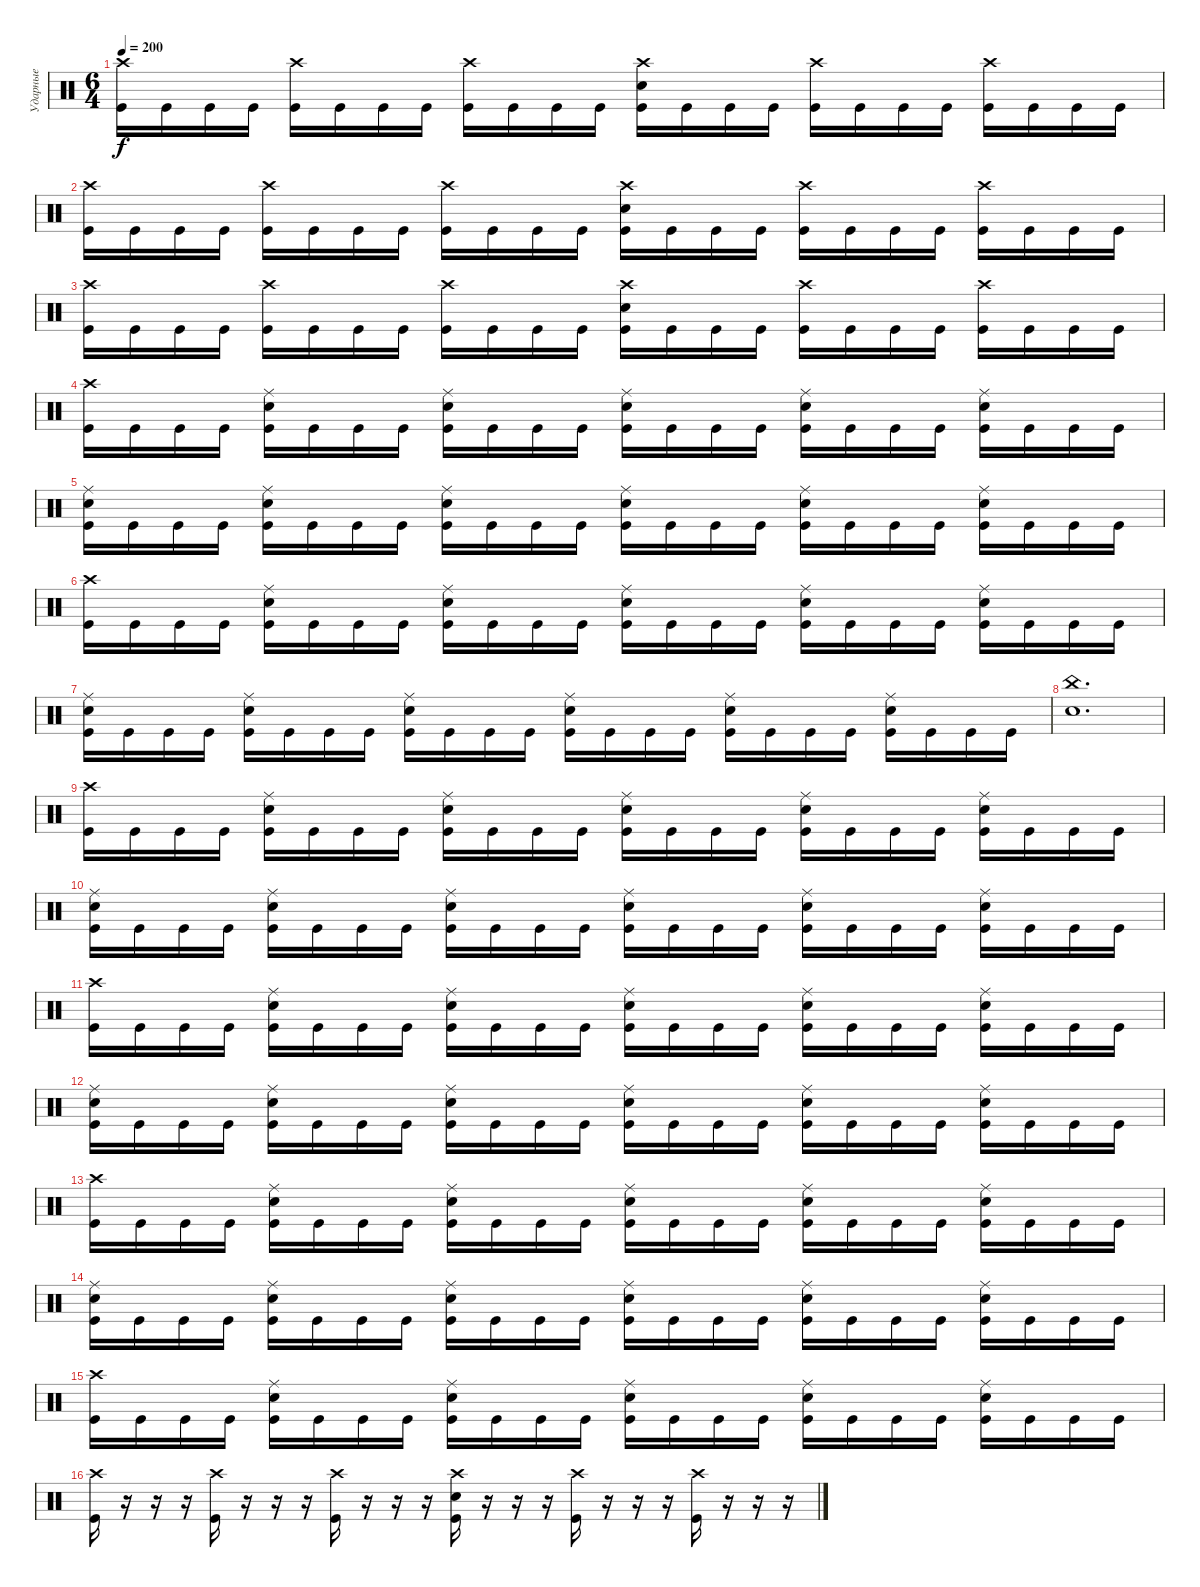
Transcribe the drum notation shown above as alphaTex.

\track ("Ударные" "Ударные") {instrument percussion}
\staff {score}
\articulation defaults
\ts (6 4)
\tempo 200
\clef neutral
\ks c
("Crash high (hit)" "Kick (hit)").16{dy f} "Kick (hit)".16 "Kick (hit)".16 "Kick (hit)".16 ("Crash high (hit)" "Kick (hit)").16 "Kick (hit)".16 "Kick (hit)".16 "Kick (hit)".16 ("Crash high (hit)" "Kick (hit)").16 "Kick (hit)".16 "Kick (hit)".16 "Kick (hit)".16 ("Crash high (hit)" "Snare (hit) 2" "Kick (hit)").16 "Kick (hit)".16 "Kick (hit)".16 "Kick (hit)".16 ("Crash high (hit)" "Kick (hit)").16 "Kick (hit)".16 "Kick (hit)".16 "Kick (hit)".16 ("Crash high (hit)" "Kick (hit)").16 "Kick (hit)".16 "Kick (hit)".16 "Kick (hit)".16 |
("Crash high (hit)" "Kick (hit)").16 "Kick (hit)".16 "Kick (hit)".16 "Kick (hit)".16 ("Crash high (hit)" "Kick (hit)").16 "Kick (hit)".16 "Kick (hit)".16 "Kick (hit)".16 ("Crash high (hit)" "Kick (hit)").16 "Kick (hit)".16 "Kick (hit)".16 "Kick (hit)".16 ("Crash high (hit)" "Snare (hit) 2" "Kick (hit)").16 "Kick (hit)".16 "Kick (hit)".16 "Kick (hit)".16 ("Crash high (hit)" "Kick (hit)").16 "Kick (hit)".16 "Kick (hit)".16 "Kick (hit)".16 ("Crash high (hit)" "Kick (hit)").16 "Kick (hit)".16 "Kick (hit)".16 "Kick (hit)".16 |
("Crash high (hit)" "Kick (hit)").16 "Kick (hit)".16 "Kick (hit)".16 "Kick (hit)".16 ("Crash high (hit)" "Kick (hit)").16 "Kick (hit)".16 "Kick (hit)".16 "Kick (hit)".16 ("Crash high (hit)" "Kick (hit)").16 "Kick (hit)".16 "Kick (hit)".16 "Kick (hit)".16 ("Crash high (hit)" "Snare (hit) 2" "Kick (hit)").16 "Kick (hit)".16 "Kick (hit)".16 "Kick (hit)".16 ("Crash high (hit)" "Kick (hit)").16 "Kick (hit)".16 "Kick (hit)".16 "Kick (hit)".16 ("Crash high (hit)" "Kick (hit)").16 "Kick (hit)".16 "Kick (hit)".16 "Kick (hit)".16 |
("Crash high (hit)" "Kick (hit)").16 "Kick (hit)".16 "Kick (hit)".16 "Kick (hit)".16 ("Ride (middle)" "Snare (hit) 2" "Kick (hit)").16 "Kick (hit)".16 "Kick (hit)".16 "Kick (hit)".16 ("Ride (middle)" "Snare (hit) 2" "Kick (hit)").16 "Kick (hit)".16 "Kick (hit)".16 "Kick (hit)".16 ("Ride (middle)" "Snare (hit) 2" "Kick (hit)").16 "Kick (hit)".16 "Kick (hit)".16 "Kick (hit)".16 ("Ride (middle)" "Snare (hit) 2" "Kick (hit)").16 "Kick (hit)".16 "Kick (hit)".16 "Kick (hit)".16 ("Ride (middle)" "Snare (hit) 2" "Kick (hit)").16 "Kick (hit)".16 "Kick (hit)".16 "Kick (hit)".16 |
("Ride (middle)" "Snare (hit) 2" "Kick (hit)").16 "Kick (hit)".16 "Kick (hit)".16 "Kick (hit)".16 ("Ride (middle)" "Snare (hit) 2" "Kick (hit)").16 "Kick (hit)".16 "Kick (hit)".16 "Kick (hit)".16 ("Ride (middle)" "Snare (hit) 2" "Kick (hit)").16 "Kick (hit)".16 "Kick (hit)".16 "Kick (hit)".16 ("Ride (middle)" "Snare (hit) 2" "Kick (hit)").16 "Kick (hit)".16 "Kick (hit)".16 "Kick (hit)".16 ("Ride (middle)" "Snare (hit) 2" "Kick (hit)").16 "Kick (hit)".16 "Kick (hit)".16 "Kick (hit)".16 ("Ride (middle)" "Snare (hit) 2" "Kick (hit)").16 "Kick (hit)".16 "Kick (hit)".16 "Kick (hit)".16 |
("Crash high (hit)" "Kick (hit)").16 "Kick (hit)".16 "Kick (hit)".16 "Kick (hit)".16 ("Ride (middle)" "Snare (hit) 2" "Kick (hit)").16 "Kick (hit)".16 "Kick (hit)".16 "Kick (hit)".16 ("Ride (middle)" "Snare (hit) 2" "Kick (hit)").16 "Kick (hit)".16 "Kick (hit)".16 "Kick (hit)".16 ("Ride (middle)" "Snare (hit) 2" "Kick (hit)").16 "Kick (hit)".16 "Kick (hit)".16 "Kick (hit)".16 ("Ride (middle)" "Snare (hit) 2" "Kick (hit)").16 "Kick (hit)".16 "Kick (hit)".16 "Kick (hit)".16 ("Ride (middle)" "Snare (hit) 2" "Kick (hit)").16 "Kick (hit)".16 "Kick (hit)".16 "Kick (hit)".16 |
("Ride (middle)" "Snare (hit) 2" "Kick (hit)").16 "Kick (hit)".16 "Kick (hit)".16 "Kick (hit)".16 ("Ride (middle)" "Snare (hit) 2" "Kick (hit)").16 "Kick (hit)".16 "Kick (hit)".16 "Kick (hit)".16 ("Ride (middle)" "Snare (hit) 2" "Kick (hit)").16 "Kick (hit)".16 "Kick (hit)".16 "Kick (hit)".16 ("Ride (middle)" "Snare (hit) 2" "Kick (hit)").16 "Kick (hit)".16 "Kick (hit)".16 "Kick (hit)".16 ("Ride (middle)" "Snare (hit) 2" "Kick (hit)").16 "Kick (hit)".16 "Kick (hit)".16 "Kick (hit)".16 ("Ride (middle)" "Snare (hit) 2" "Kick (hit)").16 "Kick (hit)".16 "Kick (hit)".16 "Kick (hit)".16 |
("China (hit)" "Snare (hit) 2").1{d} |
("Crash high (hit)" "Kick (hit)").16 "Kick (hit)".16 "Kick (hit)".16 "Kick (hit)".16 ("Ride (middle)" "Snare (hit) 2" "Kick (hit)").16 "Kick (hit)".16 "Kick (hit)".16 "Kick (hit)".16 ("Ride (middle)" "Snare (hit) 2" "Kick (hit)").16 "Kick (hit)".16 "Kick (hit)".16 "Kick (hit)".16 ("Ride (middle)" "Snare (hit) 2" "Kick (hit)").16 "Kick (hit)".16 "Kick (hit)".16 "Kick (hit)".16 ("Ride (middle)" "Snare (hit) 2" "Kick (hit)").16 "Kick (hit)".16 "Kick (hit)".16 "Kick (hit)".16 ("Ride (middle)" "Snare (hit) 2" "Kick (hit)").16 "Kick (hit)".16 "Kick (hit)".16 "Kick (hit)".16 |
("Ride (middle)" "Snare (hit) 2" "Kick (hit)").16 "Kick (hit)".16 "Kick (hit)".16 "Kick (hit)".16 ("Ride (middle)" "Snare (hit) 2" "Kick (hit)").16 "Kick (hit)".16 "Kick (hit)".16 "Kick (hit)".16 ("Ride (middle)" "Snare (hit) 2" "Kick (hit)").16 "Kick (hit)".16 "Kick (hit)".16 "Kick (hit)".16 ("Ride (middle)" "Snare (hit) 2" "Kick (hit)").16 "Kick (hit)".16 "Kick (hit)".16 "Kick (hit)".16 ("Ride (middle)" "Snare (hit) 2" "Kick (hit)").16 "Kick (hit)".16 "Kick (hit)".16 "Kick (hit)".16 ("Ride (middle)" "Snare (hit) 2" "Kick (hit)").16 "Kick (hit)".16 "Kick (hit)".16 "Kick (hit)".16 |
("Crash high (hit)" "Kick (hit)").16 "Kick (hit)".16 "Kick (hit)".16 "Kick (hit)".16 ("Ride (middle)" "Snare (hit) 2" "Kick (hit)").16 "Kick (hit)".16 "Kick (hit)".16 "Kick (hit)".16 ("Ride (middle)" "Snare (hit) 2" "Kick (hit)").16 "Kick (hit)".16 "Kick (hit)".16 "Kick (hit)".16 ("Ride (middle)" "Snare (hit) 2" "Kick (hit)").16 "Kick (hit)".16 "Kick (hit)".16 "Kick (hit)".16 ("Ride (middle)" "Snare (hit) 2" "Kick (hit)").16 "Kick (hit)".16 "Kick (hit)".16 "Kick (hit)".16 ("Ride (middle)" "Snare (hit) 2" "Kick (hit)").16 "Kick (hit)".16 "Kick (hit)".16 "Kick (hit)".16 |
("Ride (middle)" "Snare (hit) 2" "Kick (hit)").16 "Kick (hit)".16 "Kick (hit)".16 "Kick (hit)".16 ("Ride (middle)" "Snare (hit) 2" "Kick (hit)").16 "Kick (hit)".16 "Kick (hit)".16 "Kick (hit)".16 ("Ride (middle)" "Snare (hit) 2" "Kick (hit)").16 "Kick (hit)".16 "Kick (hit)".16 "Kick (hit)".16 ("Ride (middle)" "Snare (hit) 2" "Kick (hit)").16 "Kick (hit)".16 "Kick (hit)".16 "Kick (hit)".16 ("Ride (middle)" "Snare (hit) 2" "Kick (hit)").16 "Kick (hit)".16 "Kick (hit)".16 "Kick (hit)".16 ("Ride (middle)" "Snare (hit) 2" "Kick (hit)").16 "Kick (hit)".16 "Kick (hit)".16 "Kick (hit)".16 |
("Crash high (hit)" "Kick (hit)").16 "Kick (hit)".16 "Kick (hit)".16 "Kick (hit)".16 ("Ride (middle)" "Snare (hit) 2" "Kick (hit)").16 "Kick (hit)".16 "Kick (hit)".16 "Kick (hit)".16 ("Ride (middle)" "Snare (hit) 2" "Kick (hit)").16 "Kick (hit)".16 "Kick (hit)".16 "Kick (hit)".16 ("Ride (middle)" "Snare (hit) 2" "Kick (hit)").16 "Kick (hit)".16 "Kick (hit)".16 "Kick (hit)".16 ("Ride (middle)" "Snare (hit) 2" "Kick (hit)").16 "Kick (hit)".16 "Kick (hit)".16 "Kick (hit)".16 ("Ride (middle)" "Snare (hit) 2" "Kick (hit)").16 "Kick (hit)".16 "Kick (hit)".16 "Kick (hit)".16 |
("Ride (middle)" "Snare (hit) 2" "Kick (hit)").16 "Kick (hit)".16 "Kick (hit)".16 "Kick (hit)".16 ("Ride (middle)" "Snare (hit) 2" "Kick (hit)").16 "Kick (hit)".16 "Kick (hit)".16 "Kick (hit)".16 ("Ride (middle)" "Snare (hit) 2" "Kick (hit)").16 "Kick (hit)".16 "Kick (hit)".16 "Kick (hit)".16 ("Ride (middle)" "Snare (hit) 2" "Kick (hit)").16 "Kick (hit)".16 "Kick (hit)".16 "Kick (hit)".16 ("Ride (middle)" "Snare (hit) 2" "Kick (hit)").16 "Kick (hit)".16 "Kick (hit)".16 "Kick (hit)".16 ("Ride (middle)" "Snare (hit) 2" "Kick (hit)").16 "Kick (hit)".16 "Kick (hit)".16 "Kick (hit)".16 |
("Crash high (hit)" "Kick (hit)").16 "Kick (hit)".16 "Kick (hit)".16 "Kick (hit)".16 ("Ride (middle)" "Snare (hit) 2" "Kick (hit)").16 "Kick (hit)".16 "Kick (hit)".16 "Kick (hit)".16 ("Ride (middle)" "Snare (hit) 2" "Kick (hit)").16 "Kick (hit)".16 "Kick (hit)".16 "Kick (hit)".16 ("Ride (middle)" "Snare (hit) 2" "Kick (hit)").16 "Kick (hit)".16 "Kick (hit)".16 "Kick (hit)".16 ("Ride (middle)" "Snare (hit) 2" "Kick (hit)").16 "Kick (hit)".16 "Kick (hit)".16 "Kick (hit)".16 ("Ride (middle)" "Snare (hit) 2" "Kick (hit)").16 "Kick (hit)".16 "Kick (hit)".16 "Kick (hit)".16 |
("Crash high (hit)" "Kick (hit)").16 r.16 r.16 r.16 ("Crash high (hit)" "Kick (hit)").16 r.16 r.16 r.16 ("Crash high (hit)" "Kick (hit)").16 r.16 r.16 r.16 ("Crash high (hit)" "Snare (hit) 2" "Kick (hit)").16 r.16 r.16 r.16 ("Crash high (hit)" "Kick (hit)").16 r.16 r.16 r.16 ("Crash high (hit)" "Kick (hit)").16 r.16 r.16 r.16
